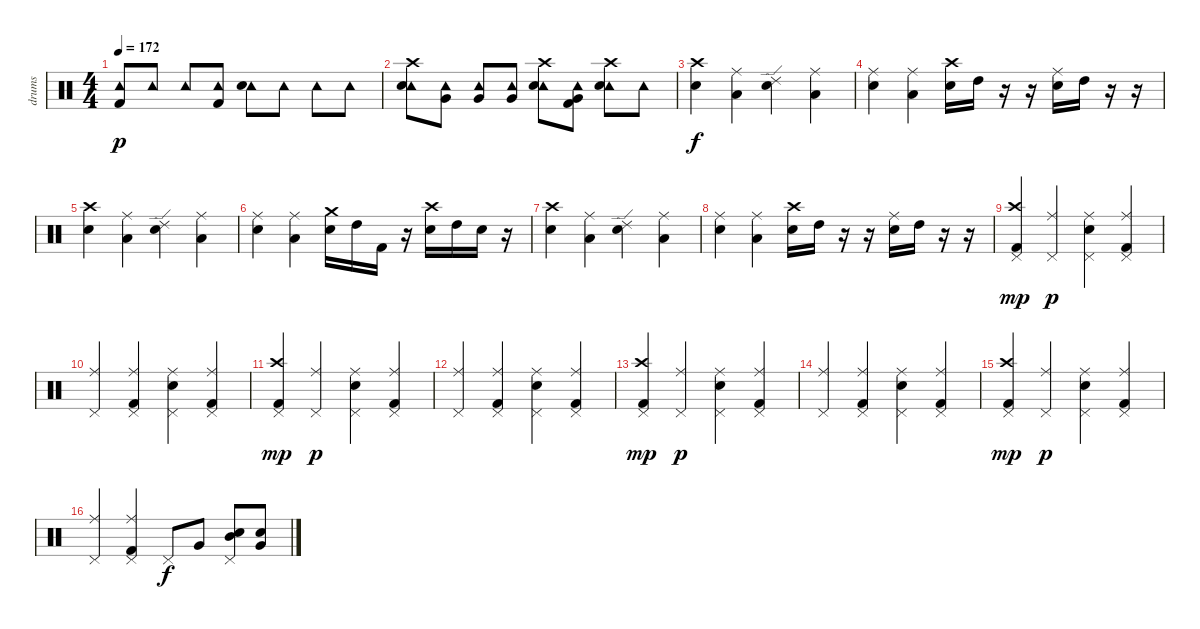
\track ("drums" "drums") {instrument percussion}
\staff {score}
\articulation defaults
\ts (4 4)
\tempo 172
\clef neutral
\ks c
("Tambourine (hit)" "Kick (hit) 2").8{dy p} "Tambourine (hit)".8 "Tambourine (hit)".8 ("Tambourine (hit)" "Kick (hit) 2").8 ("Tambourine (hit)" "Snare (hit) 2").8 "Tambourine (hit)".8 "Tambourine (hit)".8 "Tambourine (hit)".8 |
("Tambourine (hit)" "Snare (hit) 2" "Crash high (hit)").8 ("Tambourine (hit)" "Very Low Tom (hit)").8 ("Tambourine (hit)" "Very Low Tom (hit)").8 ("Tambourine (hit)" "Very Low Tom (hit)").8 ("Tambourine (hit)" "Snare (hit) 2" "Crash high (hit)").8 ("Tambourine (hit)" "Kick (hit) 2" "Very Low Tom (hit)").8 ("Tambourine (hit)" "Snare (hit) 2" "Crash high (hit)").8 "Tambourine (hit)".8 |
("Crash high (hit)" "Snare (hit) 2").4{dy f} ("Ride (middle)" "Low Tom (hit)").4 ("Ride (edge) 2" "Snare (hit) 2").4 ("Ride (middle)" "Low Tom (hit)").4 |
("Ride (middle)" "Snare (hit) 2").4 ("Ride (middle)" "Low Tom (hit)").4 ("Crash high (hit)" "Snare (hit) 2").16 "High Tom (hit)".16 r.16 r.16 ("Ride (middle)" "Snare (hit) 2").16 "High Tom (hit)".16 r.16 r.16 |
("Crash high (hit)" "Snare (hit) 2").4 ("Ride (middle)" "Low Tom (hit)").4 ("Ride (edge) 2" "Snare (hit) 2").4 ("Ride (middle)" "Low Tom (hit)").4 |
("Ride (middle)" "Snare (hit) 2").4 ("Ride (middle)" "Low Tom (hit)").4 ("Crash medium (hit)" "Snare (hit) 2").16 "High Tom (hit)".16 "Kick (hit) 2".16 r.16 ("Crash high (hit)" "Snare (hit) 2").16 "High Tom (hit)".16 "Snare (hit) 2".16 r.16 |
("Crash high (hit)" "Snare (hit) 2").4 ("Ride (middle)" "Low Tom (hit)").4 ("Ride (edge) 2" "Snare (hit) 2").4 ("Ride (middle)" "Low Tom (hit)").4 |
("Ride (middle)" "Snare (hit) 2").4 ("Ride (middle)" "Low Tom (hit)").4 ("Crash high (hit)" "Snare (hit) 2").16 "High Tom (hit)".16 r.16 r.16 ("Ride (middle)" "Snare (hit) 2").16 "High Tom (hit)".16 r.16 r.16 |
("Crash high (hit)" "Kick (hit) 2" "Pedal Hi-Hat (hit)").4{dy mp} ("Ride (middle)" "Pedal Hi-Hat (hit)").4{dy p} ("Ride (middle)" "Electric Snare (hit)" "Pedal Hi-Hat (hit)").4 ("Ride (middle)" "Kick (hit) 2" "Pedal Hi-Hat (hit)").4 |
("Ride (middle)" "Pedal Hi-Hat (hit)").4 ("Ride (middle)" "Kick (hit) 2" "Pedal Hi-Hat (hit)").4 ("Ride (middle)" "Electric Snare (hit)" "Pedal Hi-Hat (hit)").4 ("Ride (middle)" "Kick (hit) 2" "Pedal Hi-Hat (hit)").4 |
("Crash high (hit)" "Kick (hit) 2" "Pedal Hi-Hat (hit)").4{dy mp} ("Ride (middle)" "Pedal Hi-Hat (hit)").4{dy p} ("Ride (middle)" "Electric Snare (hit)" "Pedal Hi-Hat (hit)").4 ("Ride (middle)" "Kick (hit) 2" "Pedal Hi-Hat (hit)").4 |
("Ride (middle)" "Pedal Hi-Hat (hit)").4 ("Ride (middle)" "Kick (hit) 2" "Pedal Hi-Hat (hit)").4 ("Ride (middle)" "Electric Snare (hit)" "Pedal Hi-Hat (hit)").4 ("Ride (middle)" "Kick (hit) 2" "Pedal Hi-Hat (hit)").4 |
("Crash high (hit)" "Kick (hit) 2" "Pedal Hi-Hat (hit)").4{dy mp} ("Ride (middle)" "Pedal Hi-Hat (hit)").4{dy p} ("Ride (middle)" "Electric Snare (hit)" "Pedal Hi-Hat (hit)").4 ("Ride (middle)" "Kick (hit) 2" "Pedal Hi-Hat (hit)").4 |
("Ride (middle)" "Pedal Hi-Hat (hit)").4 ("Ride (middle)" "Kick (hit) 2" "Pedal Hi-Hat (hit)").4 ("Ride (middle)" "Electric Snare (hit)" "Pedal Hi-Hat (hit)").4 ("Ride (middle)" "Kick (hit) 2" "Pedal Hi-Hat (hit)").4 |
("Crash high (hit)" "Kick (hit) 2" "Pedal Hi-Hat (hit)").4{dy mp} ("Ride (middle)" "Pedal Hi-Hat (hit)").4{dy p} ("Ride (middle)" "Electric Snare (hit)" "Pedal Hi-Hat (hit)").4 ("Ride (middle)" "Kick (hit) 2" "Pedal Hi-Hat (hit)").4 |
("Ride (middle)" "Pedal Hi-Hat (hit)").4 ("Ride (middle)" "Kick (hit) 2" "Pedal Hi-Hat (hit)").4 "Pedal Hi-Hat (hit)".8{dy f} "Very Low Tom (hit)".8 ("Electric Snare (hit)" "Mid Tom (hit)" "Pedal Hi-Hat (hit)").8 ("Very Low Tom (hit)" "Electric Snare (hit)").8
